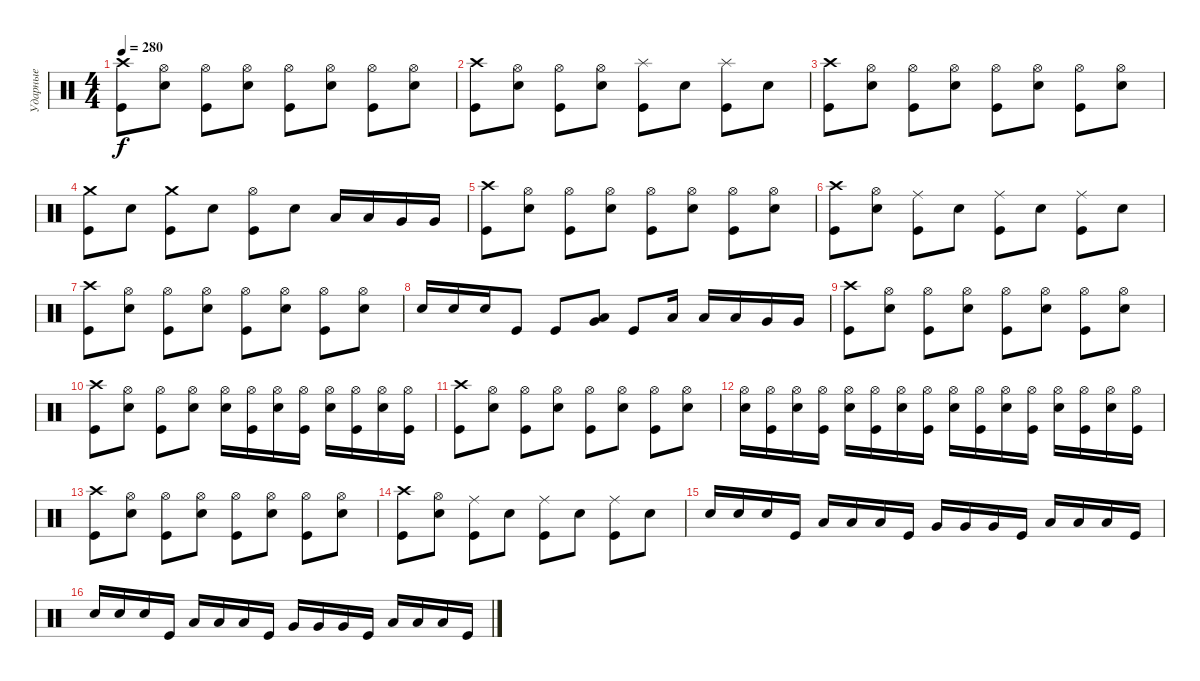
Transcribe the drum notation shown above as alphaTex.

\track ("Ударные" "Ударные") {instrument percussion}
\staff {score}
\articulation defaults
\ts (4 4)
\tempo 280
\clef neutral
\ks c
("Crash high (hit)" "Kick (hit)").8{dy f} ("Hi-Hat (open)" "Snare (hit) 2").8 ("Hi-Hat (open)" "Kick (hit)").8 ("Hi-Hat (open)" "Snare (hit) 2").8 ("Hi-Hat (open)" "Kick (hit)").8 ("Hi-Hat (open)" "Snare (hit) 2").8 ("Hi-Hat (open)" "Kick (hit)").8 ("Hi-Hat (open)" "Snare (hit) 2").8 |
("Crash high (hit)" "Kick (hit)").8 ("Hi-Hat (open)" "Snare (hit) 2").8 ("Hi-Hat (open)" "Kick (hit)").8 ("Hi-Hat (open)" "Snare (hit) 2").8 ("Splash (hit)" "Kick (hit)").8 "Snare (hit) 2".8 ("Splash (hit)" "Kick (hit)").8 "Snare (hit) 2".8 |
("Crash high (hit)" "Kick (hit)").8 ("Hi-Hat (open)" "Snare (hit) 2").8 ("Hi-Hat (open)" "Kick (hit)").8 ("Hi-Hat (open)" "Snare (hit) 2").8 ("Hi-Hat (open)" "Kick (hit)").8 ("Hi-Hat (open)" "Snare (hit) 2").8 ("Hi-Hat (open)" "Kick (hit)").8 ("Hi-Hat (open)" "Snare (hit) 2").8 |
("Crash medium (hit)" "Kick (hit)").8 "Snare (hit) 2".8 ("Crash medium (hit)" "Kick (hit)").8 "Snare (hit) 2".8 ("Hi-Hat (open)" "Kick (hit)").8 "Snare (hit) 2".8 "Low Tom (hit)".16 "Low Tom (hit)".16 "Very Low Tom (hit)".16 "Very Low Tom (hit)".16 |
("Crash high (hit)" "Kick (hit)").8 ("Hi-Hat (open)" "Snare (hit) 2").8 ("Hi-Hat (open)" "Kick (hit)").8 ("Hi-Hat (open)" "Snare (hit) 2").8 ("Hi-Hat (open)" "Kick (hit)").8 ("Hi-Hat (open)" "Snare (hit) 2").8 ("Hi-Hat (open)" "Kick (hit)").8 ("Hi-Hat (open)" "Snare (hit) 2").8 |
("Crash high (hit)" "Kick (hit)").8 ("Hi-Hat (open)" "Snare (hit) 2").8 ("Ride (middle)" "Kick (hit)").8 "Snare (hit) 2".8 ("Ride (middle)" "Kick (hit)").8 "Snare (hit) 2".8 ("Ride (middle)" "Kick (hit)").8 "Snare (hit) 2".8 |
("Crash high (hit)" "Kick (hit)").8 ("Hi-Hat (open)" "Snare (hit) 2").8 ("Hi-Hat (open)" "Kick (hit)").8 ("Hi-Hat (open)" "Snare (hit) 2").8 ("Hi-Hat (open)" "Kick (hit)").8 ("Hi-Hat (open)" "Snare (hit) 2").8 ("Hi-Hat (open)" "Kick (hit)").8 ("Hi-Hat (open)" "Snare (hit) 2").8 |
"Snare (hit) 2".16 "Snare (hit) 2".16 "Snare (hit) 2".16 "Kick (hit)".8 "Kick (hit)".8 ("Low Floor Tom (hit)" "Very Low Tom (hit)").8 "Kick (hit)".8 "Low Tom (hit)".16 "Low Tom (hit)".16 "Low Tom (hit)".16 "Very Low Tom (hit)".16 "Very Low Tom (hit)".16 |
("Crash high (hit)" "Kick (hit)").8 ("Hi-Hat (open)" "Snare (hit) 2").8 ("Hi-Hat (open)" "Kick (hit)").8 ("Hi-Hat (open)" "Snare (hit) 2").8 ("Hi-Hat (open)" "Kick (hit)").8 ("Hi-Hat (open)" "Snare (hit) 2").8 ("Hi-Hat (open)" "Kick (hit)").8 ("Hi-Hat (open)" "Snare (hit) 2").8 |
("Crash high (hit)" "Kick (hit)").8 ("Hi-Hat (open)" "Snare (hit) 2").8 ("Hi-Hat (open)" "Kick (hit)").8 ("Hi-Hat (open)" "Snare (hit) 2").8 ("Hi-Hat (open)" "Snare (hit) 2").16 ("Hi-Hat (open)" "Kick (hit)").16 ("Hi-Hat (open)" "Snare (hit) 2").16 ("Hi-Hat (open)" "Kick (hit)").16 ("Hi-Hat (open)" "Snare (hit) 2").16 ("Hi-Hat (open)" "Kick (hit)").16 ("Hi-Hat (open)" "Snare (hit) 2").16 ("Hi-Hat (open)" "Kick (hit)").16 |
("Crash high (hit)" "Kick (hit)").8 ("Hi-Hat (open)" "Snare (hit) 2").8 ("Hi-Hat (open)" "Kick (hit)").8 ("Hi-Hat (open)" "Snare (hit) 2").8 ("Hi-Hat (open)" "Kick (hit)").8 ("Hi-Hat (open)" "Snare (hit) 2").8 ("Hi-Hat (open)" "Kick (hit)").8 ("Hi-Hat (open)" "Snare (hit) 2").8 |
("Hi-Hat (open)" "Snare (hit) 2").16 ("Hi-Hat (open)" "Kick (hit)").16 ("Hi-Hat (open)" "Snare (hit) 2").16 ("Hi-Hat (open)" "Kick (hit)").16 ("Hi-Hat (open)" "Snare (hit) 2").16 ("Hi-Hat (open)" "Kick (hit)").16 ("Hi-Hat (open)" "Snare (hit) 2").16 ("Hi-Hat (open)" "Kick (hit)").16 ("Hi-Hat (open)" "Snare (hit) 2").16 ("Hi-Hat (open)" "Kick (hit)").16 ("Hi-Hat (open)" "Snare (hit) 2").16 ("Hi-Hat (open)" "Kick (hit)").16 ("Hi-Hat (open)" "Snare (hit) 2").16 ("Hi-Hat (open)" "Kick (hit)").16 ("Hi-Hat (open)" "Snare (hit) 2").16 ("Hi-Hat (open)" "Kick (hit)").16 |
("Crash high (hit)" "Kick (hit)").8 ("Hi-Hat (open)" "Snare (hit) 2").8 ("Hi-Hat (open)" "Kick (hit)").8 ("Hi-Hat (open)" "Snare (hit) 2").8 ("Hi-Hat (open)" "Kick (hit)").8 ("Hi-Hat (open)" "Snare (hit) 2").8 ("Hi-Hat (open)" "Kick (hit)").8 ("Hi-Hat (open)" "Snare (hit) 2").8 |
("Crash high (hit)" "Kick (hit)").8 ("Hi-Hat (open)" "Snare (hit) 2").8 ("Ride (middle)" "Kick (hit)").8 "Snare (hit) 2".8 ("Ride (middle)" "Kick (hit)").8 "Snare (hit) 2".8 ("Ride (middle)" "Kick (hit)").8 "Snare (hit) 2".8 |
"Snare (hit) 2".16 "Snare (hit) 2".16 "Snare (hit) 2".16 "Kick (hit)".16 "Low Tom (hit)".16 "Low Tom (hit)".16 "Low Tom (hit)".16 "Kick (hit)".16 "Very Low Tom (hit)".16 "Very Low Tom (hit)".16 "Very Low Tom (hit)".16 "Kick (hit)".16 "Low Floor Tom (hit)".16 "Low Floor Tom (hit)".16 "Low Floor Tom (hit)".16 "Kick (hit)".16 |
"Snare (hit) 2".16 "Snare (hit) 2".16 "Snare (hit) 2".16 "Kick (hit)".16 "Low Tom (hit)".16 "Low Tom (hit)".16 "Low Tom (hit)".16 "Kick (hit)".16 "Very Low Tom (hit)".16 "Very Low Tom (hit)".16 "Very Low Tom (hit)".16 "Kick (hit)".16 "Low Floor Tom (hit)".16 "Low Floor Tom (hit)".16 "Low Floor Tom (hit)".16 "Kick (hit)".16
